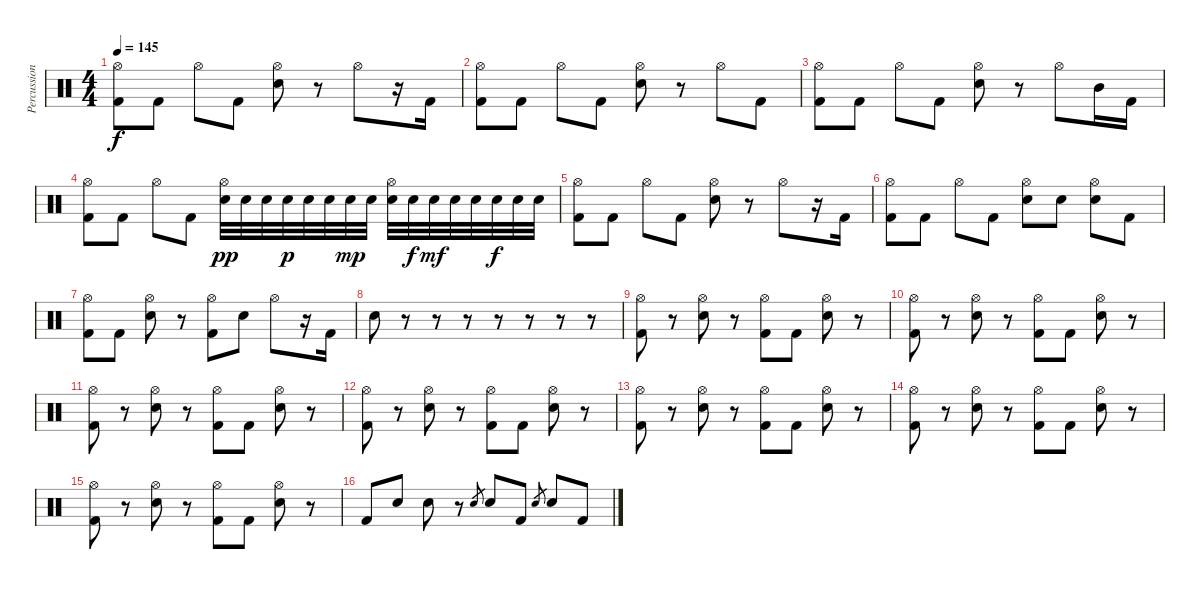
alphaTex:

\track ("Percussion" "Percussion") {instrument percussion}
\staff {score}
\articulation defaults
\ts (4 4)
\tempo 145
\clef neutral
\ks c
("Hi-Hat (open)" "Kick (hit) 2").8{dy f} "Kick (hit) 2".8 "Hi-Hat (open)".8 "Kick (hit) 2".8 ("Hi-Hat (open)" "Electric Snare (hit)").8 r.8 "Hi-Hat (open)".8 r.16 "Kick (hit) 2".16 |
("Hi-Hat (open)" "Kick (hit) 2").8 "Kick (hit) 2".8 "Hi-Hat (open)".8 "Kick (hit) 2".8 ("Hi-Hat (open)" "Electric Snare (hit)").8 r.8 "Hi-Hat (open)".8 "Kick (hit) 2".8 |
("Hi-Hat (open)" "Kick (hit) 2").8 "Kick (hit) 2".8 "Hi-Hat (open)".8 "Kick (hit) 2".8 ("Hi-Hat (open)" "Electric Snare (hit)").8 r.8 "Hi-Hat (open)".8 "Mid Tom (hit)".16 "Kick (hit) 2".16 |
("Hi-Hat (open)" "Kick (hit) 2").8 "Kick (hit) 2".8 "Hi-Hat (open)".8 "Kick (hit) 2".8 ("Hi-Hat (open)" "Electric Snare (hit)").32{dy pp} "Electric Snare (hit)".32 "Electric Snare (hit)".32 "Electric Snare (hit)".32{dy p} "Electric Snare (hit)".32 "Electric Snare (hit)".32 "Electric Snare (hit)".32{dy mp} "Electric Snare (hit)".32 ("Hi-Hat (open)" "Electric Snare (hit)").32 "Electric Snare (hit)".32{dy f} "Electric Snare (hit)".32{dy mf} "Electric Snare (hit)".32 "Electric Snare (hit)".32 "Electric Snare (hit)".32{dy f} "Electric Snare (hit)".32 "Electric Snare (hit)".32 |
("Hi-Hat (open)" "Kick (hit) 2").8 "Kick (hit) 2".8 "Hi-Hat (open)".8 "Kick (hit) 2".8 ("Hi-Hat (open)" "Electric Snare (hit)").8 r.8 "Hi-Hat (open)".8 r.16 "Kick (hit) 2".16 |
("Hi-Hat (open)" "Kick (hit) 2").8 "Kick (hit) 2".8 "Hi-Hat (open)".8 "Kick (hit) 2".8 ("Hi-Hat (open)" "Electric Snare (hit)").8 "Electric Snare (hit)".8 ("Hi-Hat (open)" "Electric Snare (hit)").8 "Kick (hit) 2".8 |
("Hi-Hat (open)" "Kick (hit) 2").8 "Kick (hit) 2".8 ("Hi-Hat (open)" "Electric Snare (hit)").8 r.8 ("Hi-Hat (open)" "Kick (hit) 2").8 "Electric Snare (hit)".8 "Hi-Hat (open)".8 r.16 "Kick (hit) 2".16 |
"Electric Snare (hit)".8 r.8 r.8 r.8 r.8 r.8 r.8 r.8 |
("Hi-Hat (open)" "Kick (hit) 2").8 r.8 ("Hi-Hat (open)" "Electric Snare (hit)").8 r.8 ("Hi-Hat (open)" "Kick (hit) 2").8 "Kick (hit) 2".8 ("Hi-Hat (open)" "Electric Snare (hit)").8 r.8 |
("Hi-Hat (open)" "Kick (hit) 2").8 r.8 ("Hi-Hat (open)" "Electric Snare (hit)").8 r.8 ("Hi-Hat (open)" "Kick (hit) 2").8 "Kick (hit) 2".8 ("Hi-Hat (open)" "Electric Snare (hit)").8 r.8 |
("Hi-Hat (open)" "Kick (hit) 2").8 r.8 ("Hi-Hat (open)" "Electric Snare (hit)").8 r.8 ("Hi-Hat (open)" "Kick (hit) 2").8 "Kick (hit) 2".8 ("Hi-Hat (open)" "Electric Snare (hit)").8 r.8 |
("Hi-Hat (open)" "Kick (hit) 2").8 r.8 ("Hi-Hat (open)" "Electric Snare (hit)").8 r.8 ("Hi-Hat (open)" "Kick (hit) 2").8 "Kick (hit) 2".8 ("Hi-Hat (open)" "Electric Snare (hit)").8 r.8 |
("Hi-Hat (open)" "Kick (hit) 2").8 r.8 ("Hi-Hat (open)" "Electric Snare (hit)").8 r.8 ("Hi-Hat (open)" "Kick (hit) 2").8 "Kick (hit) 2".8 ("Hi-Hat (open)" "Electric Snare (hit)").8 r.8 |
("Hi-Hat (open)" "Kick (hit) 2").8 r.8 ("Hi-Hat (open)" "Electric Snare (hit)").8 r.8 ("Hi-Hat (open)" "Kick (hit) 2").8 "Kick (hit) 2".8 ("Hi-Hat (open)" "Electric Snare (hit)").8 r.8 |
("Hi-Hat (open)" "Kick (hit) 2").8 r.8 ("Hi-Hat (open)" "Electric Snare (hit)").8 r.8 ("Hi-Hat (open)" "Kick (hit) 2").8 "Kick (hit) 2".8 ("Hi-Hat (open)" "Electric Snare (hit)").8 r.8 |
"Kick (hit) 2".8 "Electric Snare (hit)".8 "Electric Snare (hit)".8 r.8 "Electric Snare (hit)".8{gr} "Electric Snare (hit)".8 "Kick (hit) 2".8 "Electric Snare (hit)".8{gr} "Electric Snare (hit)".8 "Kick (hit) 2".8
